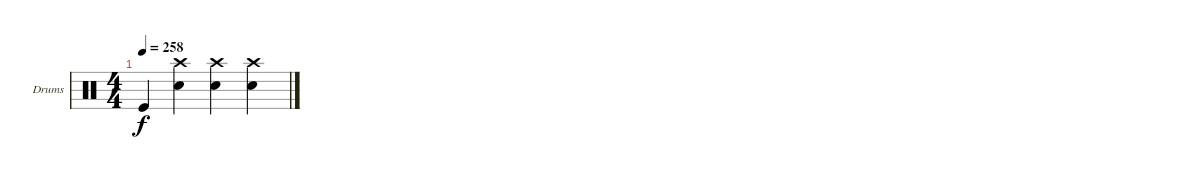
\defaultSystemsLayout 4
\bracketExtendMode groupsimilarinstruments
\firstSystemTrackNameOrientation horizontal
\otherSystemsTrackNameOrientation horizontal
\track ("Drumkit" "Drums") {instrument percussion}
\staff {score}
\articulation defaults
\ts (4 4)
\tempo 258
\clef neutral
\ks c "Kick (hit)".4{dy f}
("Snare (hit) 2" "Crash high (hit)").4 ("Snare (hit) 2" "Crash high (hit)").4 ("Snare (hit) 2" "Crash high (hit)").4
